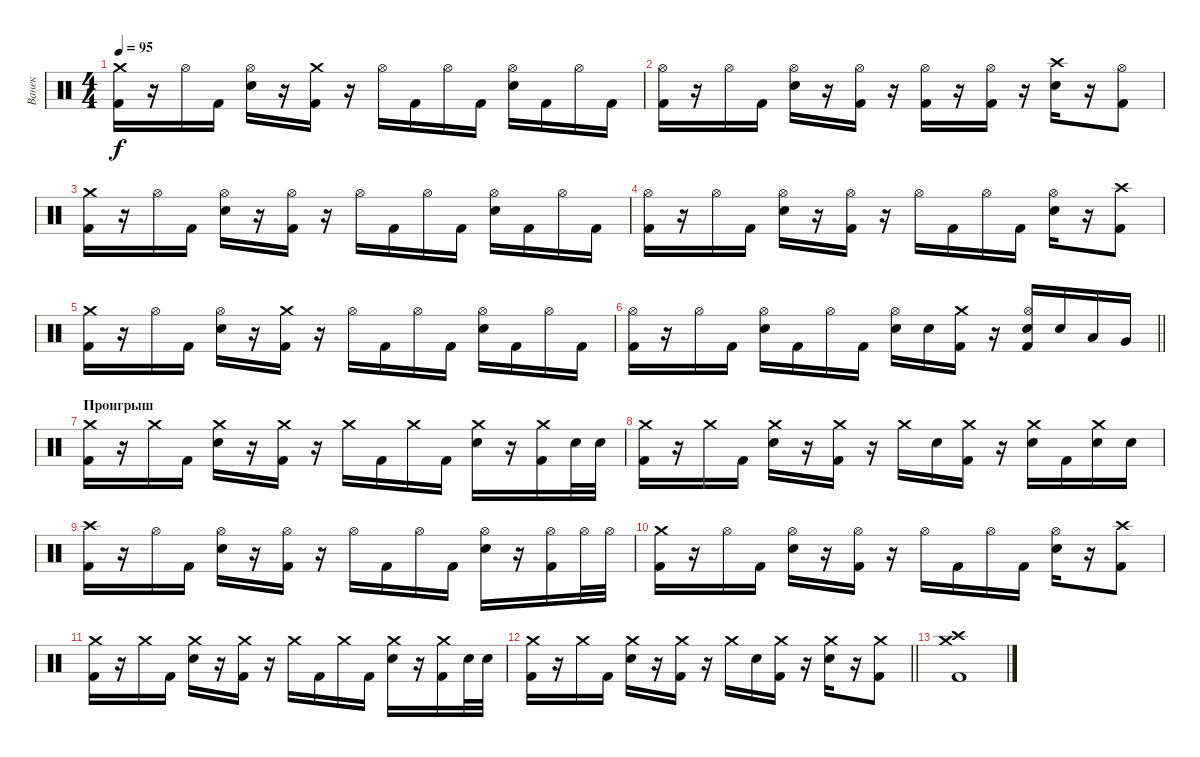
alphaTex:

\track ("Ванек" "Ванек") {instrument percussion}
\staff {score}
\articulation defaults
\ts (4 4)
\tempo 95
\clef neutral
\ks c
("Crash medium (hit)" "Kick (hit) 2").16{dy f} r.16 "Hi-Hat (open)".16 "Kick (hit) 2".16 ("Hi-Hat (open)" "Snare (hit) 2").16 r.16 ("Crash medium (hit)" "Kick (hit) 2").16 r.16 "Hi-Hat (open)".16 "Kick (hit) 2".16 "Hi-Hat (open)".16 "Kick (hit) 2".16 ("Hi-Hat (open)" "Snare (hit) 2").16 "Kick (hit) 2".16 "Hi-Hat (open)".16 "Kick (hit) 2".16 |
("Hi-Hat (open)" "Kick (hit) 2").16 r.16 "Hi-Hat (open)".16 "Kick (hit) 2".16 ("Hi-Hat (open)" "Snare (hit) 2").16 r.16 ("Hi-Hat (open)" "Kick (hit) 2").16 r.16 ("Hi-Hat (open)" "Kick (hit) 2").16 r.16 ("Hi-Hat (open)" "Kick (hit) 2").16 r.16 ("Crash high (hit)" "Snare (hit) 2").16 r.16 ("Hi-Hat (open)" "Kick (hit) 2").8 |
("Crash medium (hit)" "Kick (hit) 2").16 r.16 "Hi-Hat (open)".16 "Kick (hit) 2".16 ("Hi-Hat (open)" "Snare (hit) 2").16 r.16 ("Hi-Hat (open)" "Kick (hit) 2").16 r.16 "Hi-Hat (open)".16 "Kick (hit) 2".16 "Hi-Hat (open)".16 "Kick (hit) 2".16 ("Hi-Hat (open)" "Snare (hit) 2").16 "Kick (hit) 2".16 "Hi-Hat (open)".16 "Kick (hit) 2".16 |
("Hi-Hat (open)" "Kick (hit) 2").16 r.16 "Hi-Hat (open)".16 "Kick (hit) 2".16 ("Hi-Hat (open)" "Snare (hit) 2").16 r.16 ("Hi-Hat (open)" "Kick (hit) 2").16 r.16 "Hi-Hat (open)".16 "Kick (hit) 2".16 "Hi-Hat (open)".16 "Kick (hit) 2".16 ("Hi-Hat (open)" "Snare (hit) 2").16 r.16 ("Crash high (hit)" "Kick (hit) 2").8 |
("Crash medium (hit)" "Kick (hit) 2").16 r.16 "Hi-Hat (open)".16 "Kick (hit) 2".16 ("Hi-Hat (open)" "Snare (hit) 2").16 r.16 ("Crash medium (hit)" "Kick (hit) 2").16 r.16 "Hi-Hat (open)".16 "Kick (hit) 2".16 "Hi-Hat (open)".16 "Kick (hit) 2".16 ("Hi-Hat (open)" "Snare (hit) 2").16 "Kick (hit) 2".16 "Hi-Hat (open)".16 "Kick (hit) 2".16 |
\barLineRight lightlight
("Hi-Hat (open)" "Kick (hit) 2").16 r.16 "Hi-Hat (open)".16 "Kick (hit) 2".16 ("Hi-Hat (open)" "Snare (hit) 2").16 "Kick (hit) 2".16 "Hi-Hat (open)".16 "Kick (hit) 2".16 ("Hi-Hat (open)" "Snare (hit) 2").16 "Snare (hit) 2".16 ("Crash medium (hit)" "Kick (hit) 2").16 r.16 ("Hi-Hat (open)" "Snare (hit) 2" "Kick (hit) 2").16 "Snare (hit) 2".16 "Low Floor Tom (hit)".16 "Very Low Tom (hit)".16 |
\section ("" "Проигрыш")
("Crash medium (hit)" "Kick (hit) 2").16 r.16 "Crash medium (hit)".16 "Kick (hit) 2".16 ("Crash medium (hit)" "Snare (hit) 2").16 r.16 ("Crash medium (hit)" "Kick (hit) 2").16 r.16 "Crash medium (hit)".16 "Kick (hit) 2".16 "Crash medium (hit)".16 "Kick (hit) 2".16 ("Crash medium (hit)" "Snare (hit) 2").16 r.16 ("Crash medium (hit)" "Kick (hit) 2").16 "Snare (hit) 2".32 "Snare (hit) 2".32 |
("Crash medium (hit)" "Kick (hit) 2").16 r.16 "Crash medium (hit)".16 "Kick (hit) 2".16 ("Crash medium (hit)" "Snare (hit) 2").16 r.16 ("Crash medium (hit)" "Kick (hit) 2").16 r.16 "Crash medium (hit)".16 "Snare (hit) 2".16 ("Crash medium (hit)" "Kick (hit) 2").16 r.16 ("Crash medium (hit)" "Snare (hit) 2").16 "Kick (hit) 2".16 ("Crash medium (hit)" "Snare (hit) 2").16 "Snare (hit) 2".16 |
("Crash high (hit)" "Kick (hit) 2").16 r.16 "Hi-Hat (open)".16 "Kick (hit) 2".16 ("Hi-Hat (open)" "Snare (hit) 2").16 r.16 ("Hi-Hat (open)" "Kick (hit) 2").16 r.16 "Hi-Hat (open)".16 "Kick (hit) 2".16 "Hi-Hat (open)".16 "Kick (hit) 2".16 ("Hi-Hat (open)" "Snare (hit) 2").16 r.16 ("Hi-Hat (open)" "Kick (hit) 2").16 "Hi-Hat (open)".32 "Hi-Hat (open)".32 |
("Crash medium (hit)" "Kick (hit) 2").16 r.16 "Hi-Hat (open)".16 "Kick (hit) 2".16 ("Hi-Hat (open)" "Snare (hit) 2").16 r.16 ("Hi-Hat (open)" "Kick (hit) 2").16 r.16 "Hi-Hat (open)".16 "Kick (hit) 2".16 "Hi-Hat (open)".16 "Kick (hit) 2".16 ("Hi-Hat (open)" "Snare (hit) 2").16 r.16 ("Crash high (hit)" "Kick (hit) 2").8 |
("Crash medium (hit)" "Kick (hit) 2").16 r.16 "Crash medium (hit)".16 "Kick (hit) 2".16 ("Crash medium (hit)" "Snare (hit) 2").16 r.16 ("Crash medium (hit)" "Kick (hit) 2").16 r.16 "Crash medium (hit)".16 "Kick (hit) 2".16 "Crash medium (hit)".16 "Kick (hit) 2".16 ("Crash medium (hit)" "Snare (hit) 2").16 r.16 ("Crash medium (hit)" "Kick (hit) 2").16 "Snare (hit) 2".32 "Snare (hit) 2".32 |
\barLineRight lightlight
("Crash medium (hit)" "Kick (hit) 2").16 r.16 "Crash medium (hit)".16 "Kick (hit) 2".16 ("Crash medium (hit)" "Snare (hit) 2").16 r.16 ("Crash medium (hit)" "Kick (hit) 2").16 r.16 "Crash medium (hit)".16 "Snare (hit) 2".16 ("Crash medium (hit)" "Kick (hit) 2").16 r.16 ("Crash medium (hit)" "Snare (hit) 2").16 r.16 ("Crash medium (hit)" "Kick (hit) 2").8 |
("Crash high (hit)" "Crash medium (hit)" "Kick (hit) 2").1
